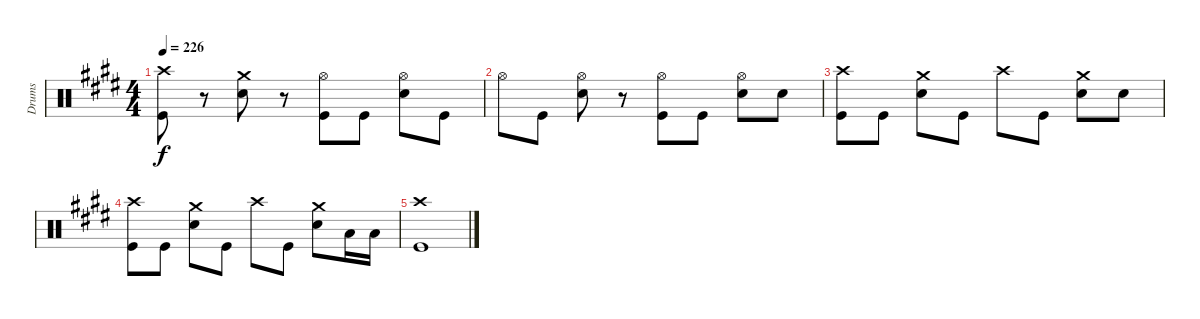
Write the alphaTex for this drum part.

\track ("Drums" "Drums") {instrument percussion}
\staff {score}
\articulation defaults
\ts (4 4)
\tempo 226
\clef neutral
\ks e
("Crash high (hit)" "Kick (hit)").8{dy f} r.8 ("Crash medium (hit)" "Snare (hit) 2").8 r.8 ("Hi-Hat (open)" "Kick (hit)").8 "Kick (hit)".8 ("Hi-Hat (open)" "Snare (hit) 2").8 "Kick (hit)".8 |
"Hi-Hat (open)".8 "Kick (hit)".8 ("Hi-Hat (open)" "Snare (hit) 2").8 r.8 ("Hi-Hat (open)" "Kick (hit)").8 "Kick (hit)".8 ("Hi-Hat (open)" "Snare (hit) 2").8 "Snare (hit) 2".8 |
("Crash high (hit)" "Kick (hit)").8 "Kick (hit)".8 ("Crash medium (hit)" "Snare (hit) 2").8 "Kick (hit)".8 "Crash high (hit)".8 "Kick (hit)".8 ("Crash medium (hit)" "Snare (hit) 2").8 "Snare (hit) 2".8 |
("Crash high (hit)" "Kick (hit)").8 "Kick (hit)".8 ("Crash medium (hit)" "Snare (hit) 2").8 "Kick (hit)".8 "Crash high (hit)".8 "Kick (hit)".8 ("Crash medium (hit)" "Snare (hit) 2").8 "Low Tom (hit)".16 "Low Tom (hit)".16 |
("Crash high (hit)" "Kick (hit)").1
